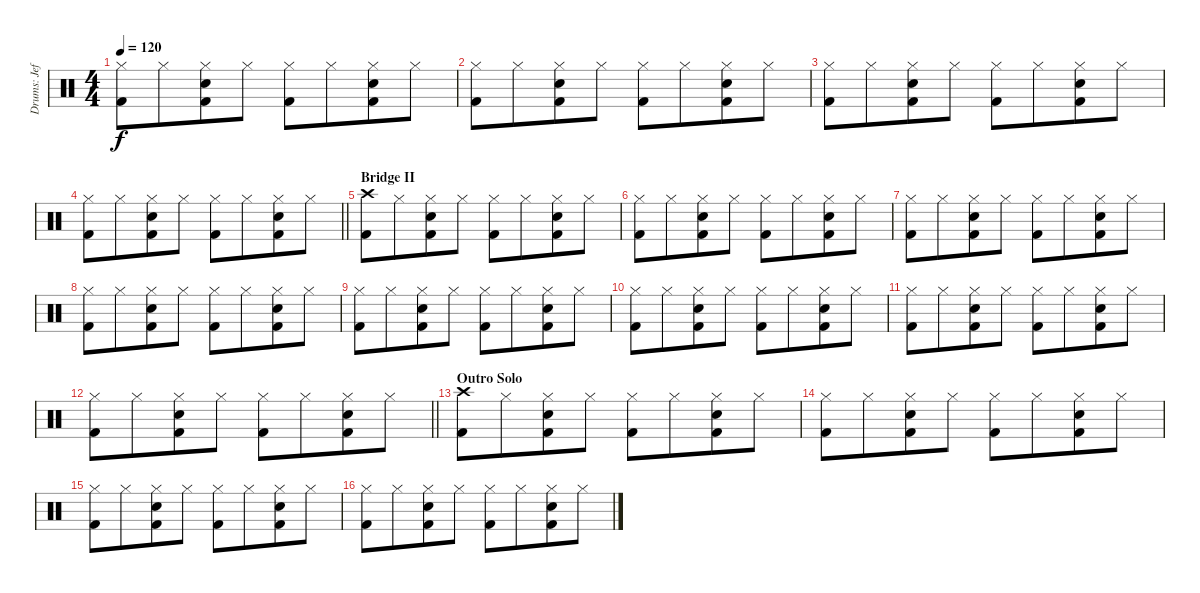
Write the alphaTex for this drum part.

\track ("Drums: Jeff" "Drums: Jef") {instrument percussion}
\staff {score}
\articulation defaults
\ts (4 4)
\tempo 120
\clef neutral
\ks c
("Hi-Hat (closed)" "Kick (hit) 2").8{dy f} "Hi-Hat (closed)".8{beam merge} ("Hi-Hat (closed)" "Electric Snare (hit)" "Kick (hit) 2").8 "Hi-Hat (closed)".8 ("Hi-Hat (closed)" "Kick (hit) 2").8 "Hi-Hat (closed)".8{beam merge} ("Hi-Hat (closed)" "Electric Snare (hit)" "Kick (hit) 2").8 "Hi-Hat (closed)".8 |
("Hi-Hat (closed)" "Kick (hit) 2").8 "Hi-Hat (closed)".8{beam merge} ("Hi-Hat (closed)" "Electric Snare (hit)" "Kick (hit) 2").8 "Hi-Hat (closed)".8 ("Hi-Hat (closed)" "Kick (hit) 2").8 "Hi-Hat (closed)".8{beam merge} ("Hi-Hat (closed)" "Electric Snare (hit)" "Kick (hit) 2").8 "Hi-Hat (closed)".8 |
("Hi-Hat (closed)" "Kick (hit) 2").8 "Hi-Hat (closed)".8{beam merge} ("Hi-Hat (closed)" "Electric Snare (hit)" "Kick (hit) 2").8 "Hi-Hat (closed)".8 ("Hi-Hat (closed)" "Kick (hit) 2").8 "Hi-Hat (closed)".8{beam merge} ("Hi-Hat (closed)" "Electric Snare (hit)" "Kick (hit) 2").8 "Hi-Hat (closed)".8 |
\barLineRight lightlight
("Hi-Hat (closed)" "Kick (hit) 2").8 "Hi-Hat (closed)".8{beam merge} ("Hi-Hat (closed)" "Electric Snare (hit)" "Kick (hit) 2").8 "Hi-Hat (closed)".8 ("Hi-Hat (closed)" "Kick (hit) 2").8 "Hi-Hat (closed)".8{beam merge} ("Hi-Hat (closed)" "Electric Snare (hit)" "Kick (hit) 2").8 "Hi-Hat (closed)".8 |
\section ("" "Bridge II")
("Crash high (hit)" "Kick (hit) 2").8 "Hi-Hat (closed)".8{beam merge} ("Hi-Hat (closed)" "Electric Snare (hit)" "Kick (hit) 2").8 "Hi-Hat (closed)".8 ("Hi-Hat (closed)" "Kick (hit) 2").8 "Hi-Hat (closed)".8{beam merge} ("Hi-Hat (closed)" "Electric Snare (hit)" "Kick (hit) 2").8 "Hi-Hat (closed)".8 |
("Hi-Hat (closed)" "Kick (hit) 2").8 "Hi-Hat (closed)".8{beam merge} ("Hi-Hat (closed)" "Electric Snare (hit)" "Kick (hit) 2").8 "Hi-Hat (closed)".8 ("Hi-Hat (closed)" "Kick (hit) 2").8 "Hi-Hat (closed)".8{beam merge} ("Hi-Hat (closed)" "Electric Snare (hit)" "Kick (hit) 2").8 "Hi-Hat (closed)".8 |
("Hi-Hat (closed)" "Kick (hit) 2").8 "Hi-Hat (closed)".8{beam merge} ("Hi-Hat (closed)" "Electric Snare (hit)" "Kick (hit) 2").8 "Hi-Hat (closed)".8 ("Hi-Hat (closed)" "Kick (hit) 2").8 "Hi-Hat (closed)".8{beam merge} ("Hi-Hat (closed)" "Electric Snare (hit)" "Kick (hit) 2").8 "Hi-Hat (closed)".8 |
("Hi-Hat (closed)" "Kick (hit) 2").8 "Hi-Hat (closed)".8{beam merge} ("Hi-Hat (closed)" "Electric Snare (hit)" "Kick (hit) 2").8 "Hi-Hat (closed)".8 ("Hi-Hat (closed)" "Kick (hit) 2").8 "Hi-Hat (closed)".8{beam merge} ("Hi-Hat (closed)" "Electric Snare (hit)" "Kick (hit) 2").8 "Hi-Hat (closed)".8 |
("Hi-Hat (closed)" "Kick (hit) 2").8 "Hi-Hat (closed)".8{beam merge} ("Hi-Hat (closed)" "Electric Snare (hit)" "Kick (hit) 2").8 "Hi-Hat (closed)".8 ("Hi-Hat (closed)" "Kick (hit) 2").8 "Hi-Hat (closed)".8{beam merge} ("Hi-Hat (closed)" "Electric Snare (hit)" "Kick (hit) 2").8 "Hi-Hat (closed)".8 |
("Hi-Hat (closed)" "Kick (hit) 2").8 "Hi-Hat (closed)".8{beam merge} ("Hi-Hat (closed)" "Electric Snare (hit)" "Kick (hit) 2").8 "Hi-Hat (closed)".8 ("Hi-Hat (closed)" "Kick (hit) 2").8 "Hi-Hat (closed)".8{beam merge} ("Hi-Hat (closed)" "Electric Snare (hit)" "Kick (hit) 2").8 "Hi-Hat (closed)".8 |
("Hi-Hat (closed)" "Kick (hit) 2").8 "Hi-Hat (closed)".8{beam merge} ("Hi-Hat (closed)" "Electric Snare (hit)" "Kick (hit) 2").8 "Hi-Hat (closed)".8 ("Hi-Hat (closed)" "Kick (hit) 2").8 "Hi-Hat (closed)".8{beam merge} ("Hi-Hat (closed)" "Electric Snare (hit)" "Kick (hit) 2").8 "Hi-Hat (closed)".8 |
\barLineRight lightlight
("Hi-Hat (closed)" "Kick (hit) 2").8 "Hi-Hat (closed)".8{beam merge} ("Hi-Hat (closed)" "Electric Snare (hit)" "Kick (hit) 2").8 "Hi-Hat (closed)".8 ("Hi-Hat (closed)" "Kick (hit) 2").8 "Hi-Hat (closed)".8{beam merge} ("Hi-Hat (closed)" "Electric Snare (hit)" "Kick (hit) 2").8 "Hi-Hat (closed)".8 |
\section ("" "Outro Solo")
("Crash high (hit)" "Kick (hit) 2").8 "Hi-Hat (closed)".8{beam merge} ("Hi-Hat (closed)" "Electric Snare (hit)" "Kick (hit) 2").8 "Hi-Hat (closed)".8 ("Hi-Hat (closed)" "Kick (hit) 2").8 "Hi-Hat (closed)".8{beam merge} ("Hi-Hat (closed)" "Electric Snare (hit)" "Kick (hit) 2").8 "Hi-Hat (closed)".8 |
("Hi-Hat (closed)" "Kick (hit) 2").8 "Hi-Hat (closed)".8{beam merge} ("Hi-Hat (closed)" "Electric Snare (hit)" "Kick (hit) 2").8 "Hi-Hat (closed)".8 ("Hi-Hat (closed)" "Kick (hit) 2").8 "Hi-Hat (closed)".8{beam merge} ("Hi-Hat (closed)" "Electric Snare (hit)" "Kick (hit) 2").8 "Hi-Hat (closed)".8 |
("Hi-Hat (closed)" "Kick (hit) 2").8 "Hi-Hat (closed)".8{beam merge} ("Hi-Hat (closed)" "Electric Snare (hit)" "Kick (hit) 2").8 "Hi-Hat (closed)".8 ("Hi-Hat (closed)" "Kick (hit) 2").8 "Hi-Hat (closed)".8{beam merge} ("Hi-Hat (closed)" "Electric Snare (hit)" "Kick (hit) 2").8 "Hi-Hat (closed)".8 |
("Hi-Hat (closed)" "Kick (hit) 2").8 "Hi-Hat (closed)".8{beam merge} ("Hi-Hat (closed)" "Electric Snare (hit)" "Kick (hit) 2").8 "Hi-Hat (closed)".8 ("Hi-Hat (closed)" "Kick (hit) 2").8 "Hi-Hat (closed)".8{beam merge} ("Hi-Hat (closed)" "Electric Snare (hit)" "Kick (hit) 2").8 "Hi-Hat (closed)".8
